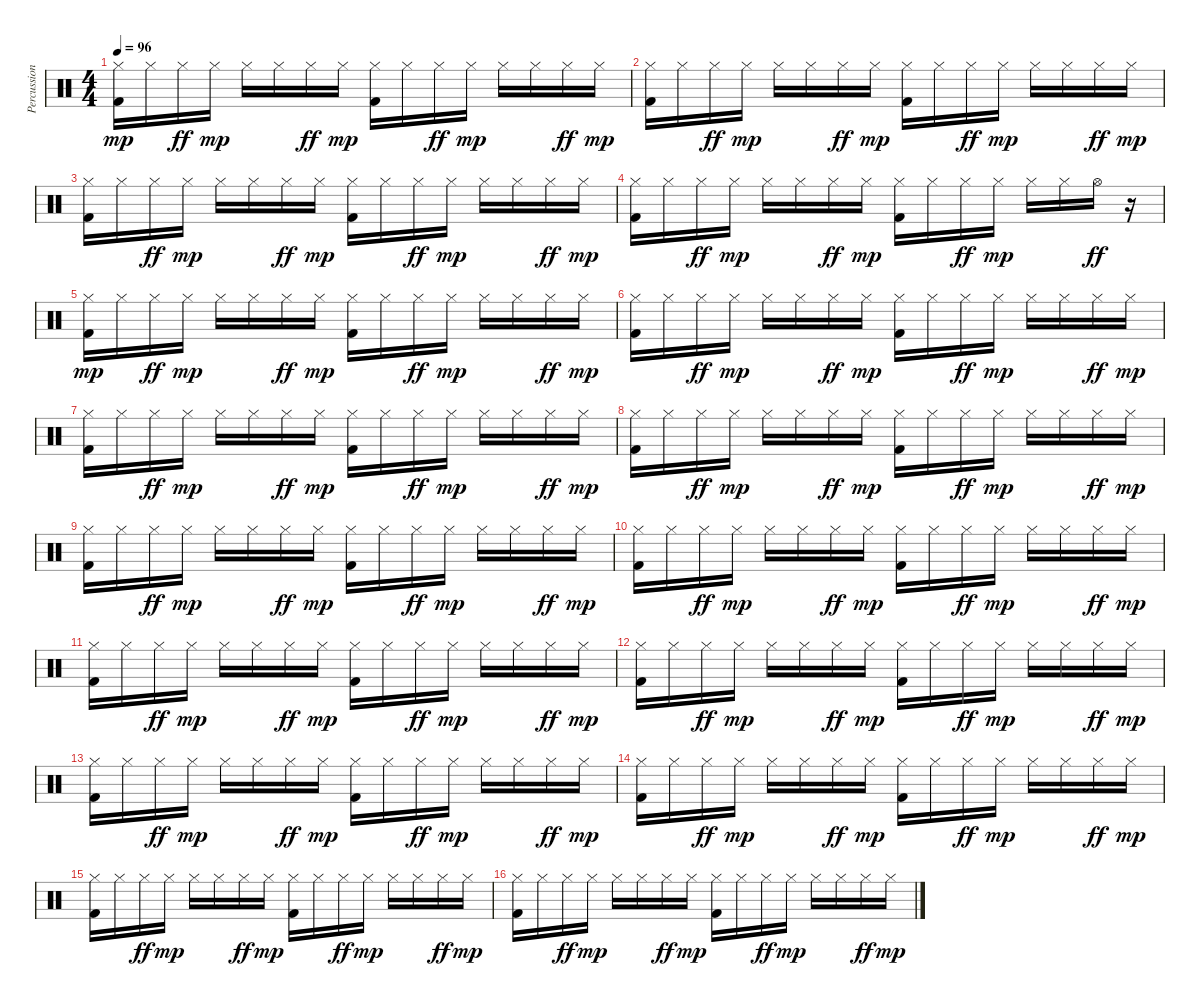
\track ("Percussions" "Percussion") {instrument percussion}
\staff {score}
\articulation defaults
\ts (4 4)
\tempo 96
\clef neutral
\ks c
("Hi-Hat (closed)" "Kick (hit) 2").16{dy mp} "Hi-Hat (closed)".16 "Hi-Hat (closed)".16{dy ff} "Hi-Hat (closed)".16{dy mp} "Hi-Hat (closed)".16 "Hi-Hat (closed)".16 "Hi-Hat (closed)".16{dy ff} "Hi-Hat (closed)".16{dy mp} ("Hi-Hat (closed)" "Kick (hit) 2").16 "Hi-Hat (closed)".16 "Hi-Hat (closed)".16{dy ff} "Hi-Hat (closed)".16{dy mp} "Hi-Hat (closed)".16 "Hi-Hat (closed)".16 "Hi-Hat (closed)".16{dy ff} "Hi-Hat (closed)".16{dy mp} |
("Hi-Hat (closed)" "Kick (hit) 2").16 "Hi-Hat (closed)".16 "Hi-Hat (closed)".16{dy ff} "Hi-Hat (closed)".16{dy mp} "Hi-Hat (closed)".16 "Hi-Hat (closed)".16 "Hi-Hat (closed)".16{dy ff} "Hi-Hat (closed)".16{dy mp} ("Hi-Hat (closed)" "Kick (hit) 2").16 "Hi-Hat (closed)".16 "Hi-Hat (closed)".16{dy ff} "Hi-Hat (closed)".16{dy mp} "Hi-Hat (closed)".16 "Hi-Hat (closed)".16 "Hi-Hat (closed)".16{dy ff} "Hi-Hat (closed)".16{dy mp} |
("Hi-Hat (closed)" "Kick (hit) 2").16 "Hi-Hat (closed)".16 "Hi-Hat (closed)".16{dy ff} "Hi-Hat (closed)".16{dy mp} "Hi-Hat (closed)".16 "Hi-Hat (closed)".16 "Hi-Hat (closed)".16{dy ff} "Hi-Hat (closed)".16{dy mp} ("Hi-Hat (closed)" "Kick (hit) 2").16 "Hi-Hat (closed)".16 "Hi-Hat (closed)".16{dy ff} "Hi-Hat (closed)".16{dy mp} "Hi-Hat (closed)".16 "Hi-Hat (closed)".16 "Hi-Hat (closed)".16{dy ff} "Hi-Hat (closed)".16{dy mp} |
("Hi-Hat (closed)" "Kick (hit) 2").16 "Hi-Hat (closed)".16 "Hi-Hat (closed)".16{dy ff} "Hi-Hat (closed)".16{dy mp} "Hi-Hat (closed)".16 "Hi-Hat (closed)".16 "Hi-Hat (closed)".16{dy ff} "Hi-Hat (closed)".16{dy mp} ("Hi-Hat (closed)" "Kick (hit) 2").16 "Hi-Hat (closed)".16 "Hi-Hat (closed)".16{dy ff} "Hi-Hat (closed)".16{dy mp} "Hi-Hat (closed)".16 "Hi-Hat (closed)".16 "Hi-Hat (open)".16{dy ff} r.16 |
("Hi-Hat (closed)" "Kick (hit) 2").16{dy mp} "Hi-Hat (closed)".16 "Hi-Hat (closed)".16{dy ff} "Hi-Hat (closed)".16{dy mp} "Hi-Hat (closed)".16 "Hi-Hat (closed)".16 "Hi-Hat (closed)".16{dy ff} "Hi-Hat (closed)".16{dy mp} ("Hi-Hat (closed)" "Kick (hit) 2").16 "Hi-Hat (closed)".16 "Hi-Hat (closed)".16{dy ff} "Hi-Hat (closed)".16{dy mp} "Hi-Hat (closed)".16 "Hi-Hat (closed)".16 "Hi-Hat (closed)".16{dy ff} "Hi-Hat (closed)".16{dy mp} |
("Hi-Hat (closed)" "Kick (hit) 2").16 "Hi-Hat (closed)".16 "Hi-Hat (closed)".16{dy ff} "Hi-Hat (closed)".16{dy mp} "Hi-Hat (closed)".16 "Hi-Hat (closed)".16 "Hi-Hat (closed)".16{dy ff} "Hi-Hat (closed)".16{dy mp} ("Hi-Hat (closed)" "Kick (hit) 2").16 "Hi-Hat (closed)".16 "Hi-Hat (closed)".16{dy ff} "Hi-Hat (closed)".16{dy mp} "Hi-Hat (closed)".16 "Hi-Hat (closed)".16 "Hi-Hat (closed)".16{dy ff} "Hi-Hat (closed)".16{dy mp} |
("Hi-Hat (closed)" "Kick (hit) 2").16 "Hi-Hat (closed)".16 "Hi-Hat (closed)".16{dy ff} "Hi-Hat (closed)".16{dy mp} "Hi-Hat (closed)".16 "Hi-Hat (closed)".16 "Hi-Hat (closed)".16{dy ff} "Hi-Hat (closed)".16{dy mp} ("Hi-Hat (closed)" "Kick (hit) 2").16 "Hi-Hat (closed)".16 "Hi-Hat (closed)".16{dy ff} "Hi-Hat (closed)".16{dy mp} "Hi-Hat (closed)".16 "Hi-Hat (closed)".16 "Hi-Hat (closed)".16{dy ff} "Hi-Hat (closed)".16{dy mp} |
("Hi-Hat (closed)" "Kick (hit) 2").16 "Hi-Hat (closed)".16 "Hi-Hat (closed)".16{dy ff} "Hi-Hat (closed)".16{dy mp} "Hi-Hat (closed)".16 "Hi-Hat (closed)".16 "Hi-Hat (closed)".16{dy ff} "Hi-Hat (closed)".16{dy mp} ("Hi-Hat (closed)" "Kick (hit) 2").16 "Hi-Hat (closed)".16 "Hi-Hat (closed)".16{dy ff} "Hi-Hat (closed)".16{dy mp} "Hi-Hat (closed)".16 "Hi-Hat (closed)".16 "Hi-Hat (closed)".16{dy ff} "Hi-Hat (closed)".16{dy mp} |
("Hi-Hat (closed)" "Kick (hit) 2").16 "Hi-Hat (closed)".16 "Hi-Hat (closed)".16{dy ff} "Hi-Hat (closed)".16{dy mp} "Hi-Hat (closed)".16 "Hi-Hat (closed)".16 "Hi-Hat (closed)".16{dy ff} "Hi-Hat (closed)".16{dy mp} ("Hi-Hat (closed)" "Kick (hit) 2").16 "Hi-Hat (closed)".16 "Hi-Hat (closed)".16{dy ff} "Hi-Hat (closed)".16{dy mp} "Hi-Hat (closed)".16 "Hi-Hat (closed)".16 "Hi-Hat (closed)".16{dy ff} "Hi-Hat (closed)".16{dy mp} |
("Hi-Hat (closed)" "Kick (hit) 2").16 "Hi-Hat (closed)".16 "Hi-Hat (closed)".16{dy ff} "Hi-Hat (closed)".16{dy mp} "Hi-Hat (closed)".16 "Hi-Hat (closed)".16 "Hi-Hat (closed)".16{dy ff} "Hi-Hat (closed)".16{dy mp} ("Hi-Hat (closed)" "Kick (hit) 2").16 "Hi-Hat (closed)".16 "Hi-Hat (closed)".16{dy ff} "Hi-Hat (closed)".16{dy mp} "Hi-Hat (closed)".16 "Hi-Hat (closed)".16 "Hi-Hat (closed)".16{dy ff} "Hi-Hat (closed)".16{dy mp} |
("Hi-Hat (closed)" "Kick (hit) 2").16 "Hi-Hat (closed)".16 "Hi-Hat (closed)".16{dy ff} "Hi-Hat (closed)".16{dy mp} "Hi-Hat (closed)".16 "Hi-Hat (closed)".16 "Hi-Hat (closed)".16{dy ff} "Hi-Hat (closed)".16{dy mp} ("Hi-Hat (closed)" "Kick (hit) 2").16 "Hi-Hat (closed)".16 "Hi-Hat (closed)".16{dy ff} "Hi-Hat (closed)".16{dy mp} "Hi-Hat (closed)".16 "Hi-Hat (closed)".16 "Hi-Hat (closed)".16{dy ff} "Hi-Hat (closed)".16{dy mp} |
("Hi-Hat (closed)" "Kick (hit) 2").16 "Hi-Hat (closed)".16 "Hi-Hat (closed)".16{dy ff} "Hi-Hat (closed)".16{dy mp} "Hi-Hat (closed)".16 "Hi-Hat (closed)".16 "Hi-Hat (closed)".16{dy ff} "Hi-Hat (closed)".16{dy mp} ("Hi-Hat (closed)" "Kick (hit) 2").16 "Hi-Hat (closed)".16 "Hi-Hat (closed)".16{dy ff} "Hi-Hat (closed)".16{dy mp} "Hi-Hat (closed)".16 "Hi-Hat (closed)".16 "Hi-Hat (closed)".16{dy ff} "Hi-Hat (closed)".16{dy mp} |
("Hi-Hat (closed)" "Kick (hit) 2").16 "Hi-Hat (closed)".16 "Hi-Hat (closed)".16{dy ff} "Hi-Hat (closed)".16{dy mp} "Hi-Hat (closed)".16 "Hi-Hat (closed)".16 "Hi-Hat (closed)".16{dy ff} "Hi-Hat (closed)".16{dy mp} ("Hi-Hat (closed)" "Kick (hit) 2").16 "Hi-Hat (closed)".16 "Hi-Hat (closed)".16{dy ff} "Hi-Hat (closed)".16{dy mp} "Hi-Hat (closed)".16 "Hi-Hat (closed)".16 "Hi-Hat (closed)".16{dy ff} "Hi-Hat (closed)".16{dy mp} |
("Hi-Hat (closed)" "Kick (hit) 2").16 "Hi-Hat (closed)".16 "Hi-Hat (closed)".16{dy ff} "Hi-Hat (closed)".16{dy mp} "Hi-Hat (closed)".16 "Hi-Hat (closed)".16 "Hi-Hat (closed)".16{dy ff} "Hi-Hat (closed)".16{dy mp} ("Hi-Hat (closed)" "Kick (hit) 2").16 "Hi-Hat (closed)".16 "Hi-Hat (closed)".16{dy ff} "Hi-Hat (closed)".16{dy mp} "Hi-Hat (closed)".16 "Hi-Hat (closed)".16 "Hi-Hat (closed)".16{dy ff} "Hi-Hat (closed)".16{dy mp} |
("Hi-Hat (closed)" "Kick (hit) 2").16 "Hi-Hat (closed)".16 "Hi-Hat (closed)".16{dy ff} "Hi-Hat (closed)".16{dy mp} "Hi-Hat (closed)".16 "Hi-Hat (closed)".16 "Hi-Hat (closed)".16{dy ff} "Hi-Hat (closed)".16{dy mp} ("Hi-Hat (closed)" "Kick (hit) 2").16 "Hi-Hat (closed)".16 "Hi-Hat (closed)".16{dy ff} "Hi-Hat (closed)".16{dy mp} "Hi-Hat (closed)".16 "Hi-Hat (closed)".16 "Hi-Hat (closed)".16{dy ff} "Hi-Hat (closed)".16{dy mp} |
("Hi-Hat (closed)" "Kick (hit) 2").16 "Hi-Hat (closed)".16 "Hi-Hat (closed)".16{dy ff} "Hi-Hat (closed)".16{dy mp} "Hi-Hat (closed)".16 "Hi-Hat (closed)".16 "Hi-Hat (closed)".16{dy ff} "Hi-Hat (closed)".16{dy mp} ("Hi-Hat (closed)" "Kick (hit) 2").16 "Hi-Hat (closed)".16 "Hi-Hat (closed)".16{dy ff} "Hi-Hat (closed)".16{dy mp} "Hi-Hat (closed)".16 "Hi-Hat (closed)".16 "Hi-Hat (closed)".16{dy ff} "Hi-Hat (closed)".16{dy mp}
